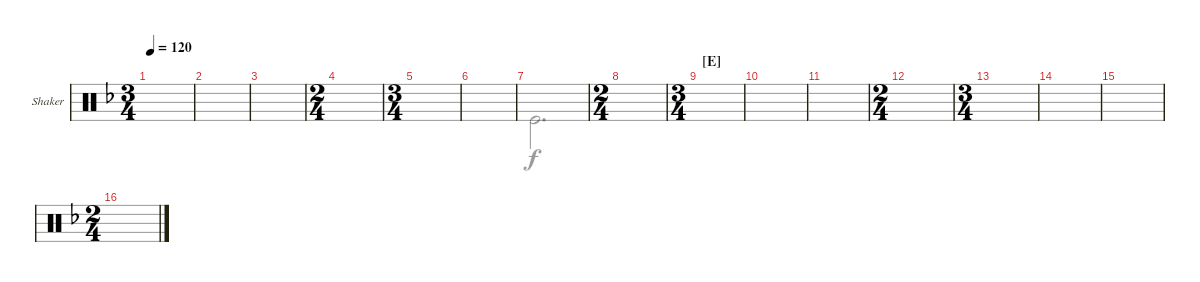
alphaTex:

\defaultSystemsLayout 4
\bracketExtendMode groupsimilarinstruments
\firstSystemTrackNameOrientation horizontal
\otherSystemsTrackNameOrientation horizontal
\track ("Shaker" "Shaker") {instrument percussion}
\staff {score}
\articulation defaults
\voice
\ts (3 4)
\tempo 120
\clef neutral
\scale
0.4
\ks f
|
\scale
0.2 |
\scale
0.2 |
\ts (2 4)
\scale
0.4 |
\ts (3 4)
\scale
0.4 |
|
|
\ts (2 4)
|
\ts (3 4)
\section ("E" "")
|
|
|
\ts (2 4)
|
\ts (3 4)
|
|
|
\ts (2 4)
\voice
\clef neutral
\ottava regular
\simile none
\scale
0.4
\ks f
|
\scale
0.2 |
\scale
0.2 |
\scale
0.4 |
\scale
0.4 |
|
"Kick (hit)".2{d} |
|
|
|
|
|
|
|
|
